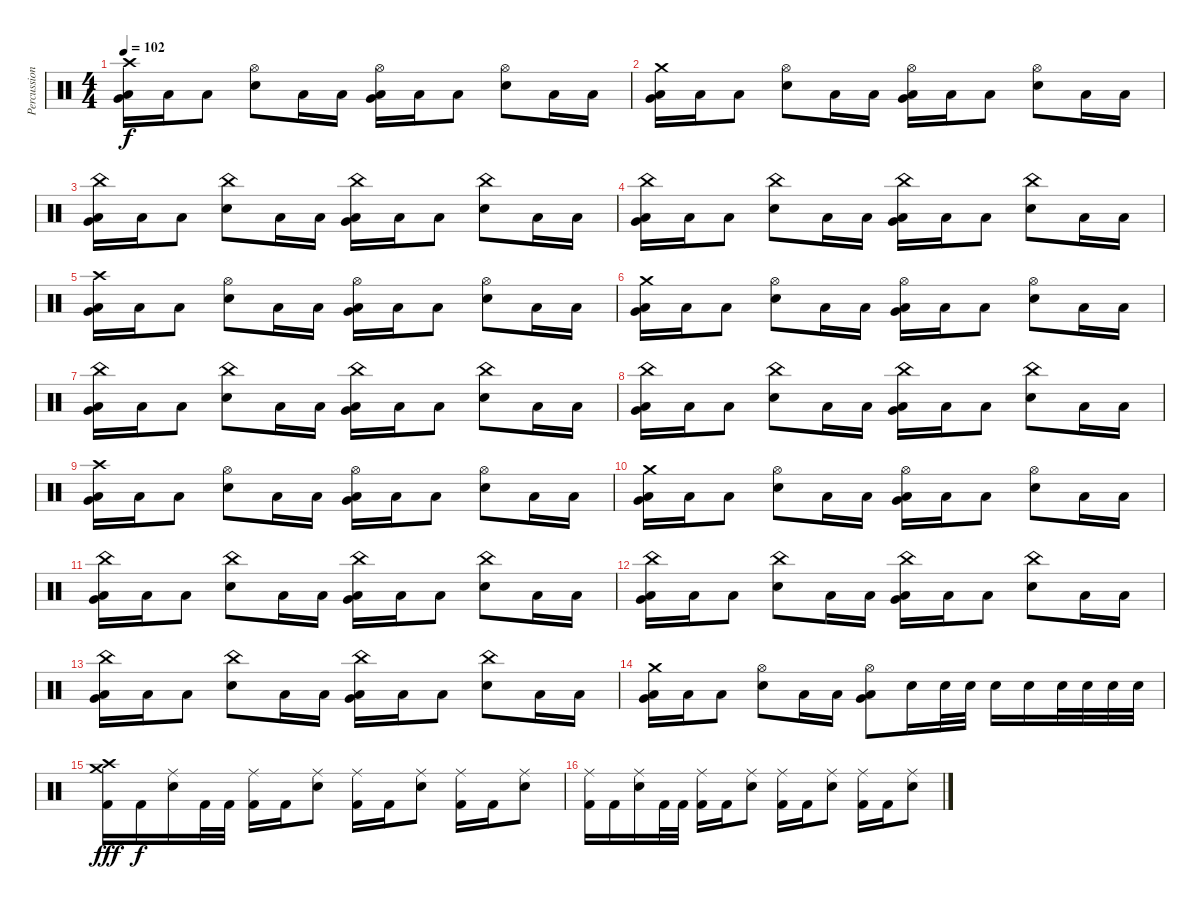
\track ("Percussion" "Percussion") {instrument percussion}
\staff {score}
\articulation defaults
\ts (4 4)
\tempo 102
\clef neutral
\ks c
("Crash high (hit)" "Very Low Tom (hit)" "Low Tom (hit)").16{dy f} "Low Floor Tom (hit)".16 "Low Floor Tom (hit)".8 ("Hi-Hat (open)" "Electric Snare (hit)").8 "Low Floor Tom (hit)".16 "Low Floor Tom (hit)".16 ("Hi-Hat (open)" "Very Low Tom (hit)" "Low Tom (hit)").16 "Low Floor Tom (hit)".16 "Low Floor Tom (hit)".8 ("Hi-Hat (open)" "Electric Snare (hit)").8 "Low Floor Tom (hit)".16 "Low Floor Tom (hit)".16 |
("Crash medium (hit)" "Very Low Tom (hit)" "Low Tom (hit)").16 "Low Floor Tom (hit)".16 "Low Floor Tom (hit)".8 ("Hi-Hat (open)" "Electric Snare (hit)").8 "Low Floor Tom (hit)".16 "Low Floor Tom (hit)".16 ("Hi-Hat (open)" "Very Low Tom (hit)" "Low Tom (hit)").16 "Low Floor Tom (hit)".16 "Low Floor Tom (hit)".8 ("Hi-Hat (open)" "Electric Snare (hit)").8 "Low Floor Tom (hit)".16 "Low Floor Tom (hit)".16 |
("China (hit)" "Very Low Tom (hit)" "Low Tom (hit)").16 "Low Floor Tom (hit)".16 "Low Floor Tom (hit)".8 ("China (hit)" "Electric Snare (hit)").8 "Low Floor Tom (hit)".16 "Low Floor Tom (hit)".16 ("China (hit)" "Very Low Tom (hit)" "Low Tom (hit)").16 "Low Floor Tom (hit)".16 "Low Floor Tom (hit)".8 ("China (hit)" "Electric Snare (hit)").8 "Low Floor Tom (hit)".16 "Low Floor Tom (hit)".16 |
("China (hit)" "Very Low Tom (hit)" "Low Tom (hit)").16 "Low Floor Tom (hit)".16 "Low Floor Tom (hit)".8 ("China (hit)" "Electric Snare (hit)").8 "Low Floor Tom (hit)".16 "Low Floor Tom (hit)".16 ("China (hit)" "Very Low Tom (hit)" "Low Tom (hit)").16 "Low Floor Tom (hit)".16 "Low Floor Tom (hit)".8 ("China (hit)" "Electric Snare (hit)").8 "Low Floor Tom (hit)".16 "Low Floor Tom (hit)".16 |
("Crash high (hit)" "Very Low Tom (hit)" "Low Tom (hit)").16 "Low Floor Tom (hit)".16 "Low Floor Tom (hit)".8 ("Hi-Hat (open)" "Electric Snare (hit)").8 "Low Floor Tom (hit)".16 "Low Floor Tom (hit)".16 ("Hi-Hat (open)" "Very Low Tom (hit)" "Low Tom (hit)").16 "Low Floor Tom (hit)".16 "Low Floor Tom (hit)".8 ("Hi-Hat (open)" "Electric Snare (hit)").8 "Low Floor Tom (hit)".16 "Low Floor Tom (hit)".16 |
("Crash medium (hit)" "Very Low Tom (hit)" "Low Tom (hit)").16 "Low Floor Tom (hit)".16 "Low Floor Tom (hit)".8 ("Hi-Hat (open)" "Electric Snare (hit)").8 "Low Floor Tom (hit)".16 "Low Floor Tom (hit)".16 ("Hi-Hat (open)" "Very Low Tom (hit)" "Low Tom (hit)").16 "Low Floor Tom (hit)".16 "Low Floor Tom (hit)".8 ("Hi-Hat (open)" "Electric Snare (hit)").8 "Low Floor Tom (hit)".16 "Low Floor Tom (hit)".16 |
("China (hit)" "Very Low Tom (hit)" "Low Tom (hit)").16 "Low Floor Tom (hit)".16 "Low Floor Tom (hit)".8 ("China (hit)" "Electric Snare (hit)").8 "Low Floor Tom (hit)".16 "Low Floor Tom (hit)".16 ("China (hit)" "Very Low Tom (hit)" "Low Tom (hit)").16 "Low Floor Tom (hit)".16 "Low Floor Tom (hit)".8 ("China (hit)" "Electric Snare (hit)").8 "Low Floor Tom (hit)".16 "Low Floor Tom (hit)".16 |
("China (hit)" "Very Low Tom (hit)" "Low Tom (hit)").16 "Low Floor Tom (hit)".16 "Low Floor Tom (hit)".8 ("China (hit)" "Electric Snare (hit)").8 "Low Floor Tom (hit)".16 "Low Floor Tom (hit)".16 ("China (hit)" "Very Low Tom (hit)" "Low Tom (hit)").16 "Low Floor Tom (hit)".16 "Low Floor Tom (hit)".8 ("China (hit)" "Electric Snare (hit)").8 "Low Floor Tom (hit)".16 "Low Floor Tom (hit)".16 |
("Crash high (hit)" "Very Low Tom (hit)" "Low Tom (hit)").16 "Low Floor Tom (hit)".16 "Low Floor Tom (hit)".8 ("Hi-Hat (open)" "Electric Snare (hit)").8 "Low Floor Tom (hit)".16 "Low Floor Tom (hit)".16 ("Hi-Hat (open)" "Very Low Tom (hit)" "Low Tom (hit)").16 "Low Floor Tom (hit)".16 "Low Floor Tom (hit)".8 ("Hi-Hat (open)" "Electric Snare (hit)").8 "Low Floor Tom (hit)".16 "Low Floor Tom (hit)".16 |
("Crash medium (hit)" "Very Low Tom (hit)" "Low Tom (hit)").16 "Low Floor Tom (hit)".16 "Low Floor Tom (hit)".8 ("Hi-Hat (open)" "Electric Snare (hit)").8 "Low Floor Tom (hit)".16 "Low Floor Tom (hit)".16 ("Hi-Hat (open)" "Very Low Tom (hit)" "Low Tom (hit)").16 "Low Floor Tom (hit)".16 "Low Floor Tom (hit)".8 ("Hi-Hat (open)" "Electric Snare (hit)").8 "Low Floor Tom (hit)".16 "Low Floor Tom (hit)".16 |
("China (hit)" "Very Low Tom (hit)" "Low Tom (hit)").16 "Low Floor Tom (hit)".16 "Low Floor Tom (hit)".8 ("China (hit)" "Electric Snare (hit)").8 "Low Floor Tom (hit)".16 "Low Floor Tom (hit)".16 ("China (hit)" "Very Low Tom (hit)" "Low Tom (hit)").16 "Low Floor Tom (hit)".16 "Low Floor Tom (hit)".8 ("China (hit)" "Electric Snare (hit)").8 "Low Floor Tom (hit)".16 "Low Floor Tom (hit)".16 |
("China (hit)" "Very Low Tom (hit)" "Low Tom (hit)").16 "Low Floor Tom (hit)".16 "Low Floor Tom (hit)".8 ("China (hit)" "Electric Snare (hit)").8 "Low Floor Tom (hit)".16 "Low Floor Tom (hit)".16 ("China (hit)" "Very Low Tom (hit)" "Low Tom (hit)").16 "Low Floor Tom (hit)".16 "Low Floor Tom (hit)".8 ("China (hit)" "Electric Snare (hit)").8 "Low Floor Tom (hit)".16 "Low Floor Tom (hit)".16 |
("China (hit)" "Very Low Tom (hit)" "Low Tom (hit)").16 "Low Floor Tom (hit)".16 "Low Floor Tom (hit)".8 ("China (hit)" "Electric Snare (hit)").8 "Low Floor Tom (hit)".16 "Low Floor Tom (hit)".16 ("China (hit)" "Very Low Tom (hit)" "Low Tom (hit)").16 "Low Floor Tom (hit)".16 "Low Floor Tom (hit)".8 ("China (hit)" "Electric Snare (hit)").8 "Low Floor Tom (hit)".16 "Low Floor Tom (hit)".16 |
("Crash medium (hit)" "Very Low Tom (hit)" "Low Tom (hit)").16{volume 14} "Low Floor Tom (hit)".16 "Low Floor Tom (hit)".8 ("Hi-Hat (open)" "Electric Snare (hit)").8 "Low Floor Tom (hit)".16 "Low Floor Tom (hit)".16 ("Hi-Hat (open)" "Very Low Tom (hit)" "Low Tom (hit)").8 "Electric Snare (hit)".16 "Electric Snare (hit)".32 "Electric Snare (hit)".32 "Electric Snare (hit)".16 "Electric Snare (hit)".16 "Electric Snare (hit)".32 "Electric Snare (hit)".32 "Electric Snare (hit)".32 "Electric Snare (hit)".32 |
("Crash medium (hit)" "Crash high (hit)" "Kick (hit) 2").16{dy fff volume 13} "Kick (hit) 2".16{dy f} ("Ride (middle)" "Electric Snare (hit)").16 "Kick (hit) 2".32 "Kick (hit) 2".32 ("Ride (middle)" "Kick (hit) 2").16 "Kick (hit) 2".16 ("Ride (middle)" "Electric Snare (hit)").8 ("Ride (middle)" "Kick (hit) 2").16 "Kick (hit) 2".16 ("Ride (middle)" "Electric Snare (hit)").8 ("Ride (middle)" "Kick (hit) 2").16 "Kick (hit) 2".16 ("Ride (middle)" "Electric Snare (hit)").8 |
("Ride (middle)" "Kick (hit) 2").16 "Kick (hit) 2".16 ("Ride (middle)" "Electric Snare (hit)").16 "Kick (hit) 2".32 "Kick (hit) 2".32 ("Ride (middle)" "Kick (hit) 2").16 "Kick (hit) 2".16 ("Ride (middle)" "Electric Snare (hit)").8 ("Ride (middle)" "Kick (hit) 2").16 "Kick (hit) 2".16 ("Ride (middle)" "Electric Snare (hit)").8 ("Ride (middle)" "Kick (hit) 2").16 "Kick (hit) 2".16 ("Ride (middle)" "Electric Snare (hit)").8
